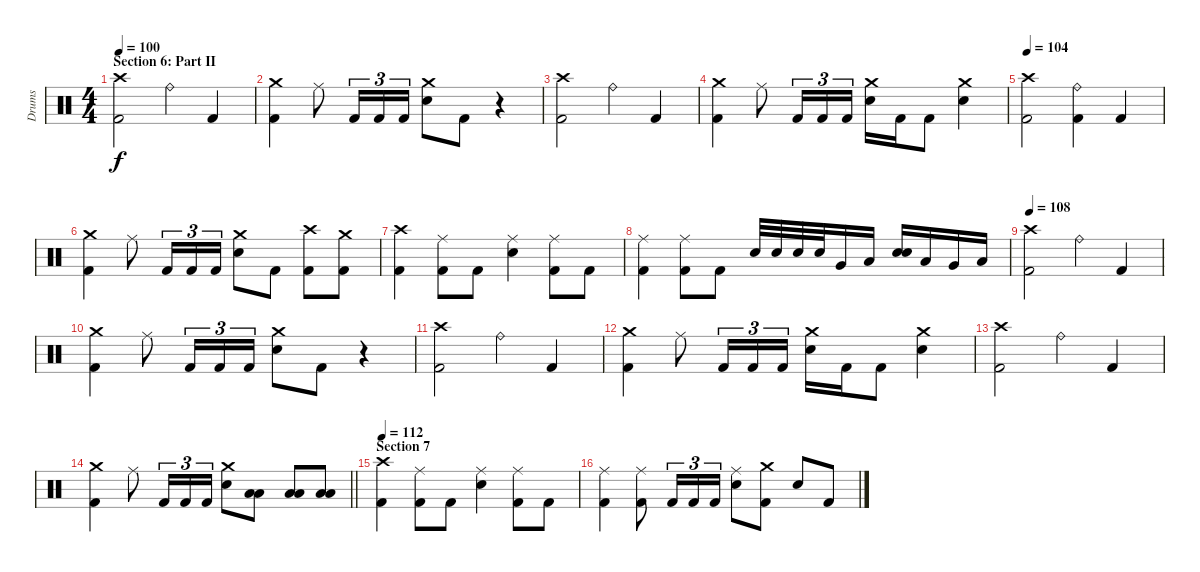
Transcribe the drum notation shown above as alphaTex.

\track ("Drums" "Drums") {instrument percussion}
\staff {score}
\articulation defaults
\ts (4 4)
\section ("" "Section 6: Part II")
\tempo 100
\clef neutral
\ks c
("Crash high (hit)" "Kick (hit) 2").2{dy f} "Ride (bell)".4 "Kick (hit) 2".4 |
("Crash medium (hit)" "Kick (hit) 2").4 "Ride (middle)".8 "Kick (hit) 2".16{tu (3 2)} "Kick (hit) 2".16{tu (3 2)} "Kick (hit) 2".16{tu (3 2)} ("Crash medium (hit)" "Electric Snare (hit)").8 "Kick (hit) 2".8 r.4 |
("Crash high (hit)" "Kick (hit) 2").2 "Ride (bell)".4 "Kick (hit) 2".4 |
("Crash medium (hit)" "Kick (hit) 2").4 "Ride (middle)".8 "Kick (hit) 2".16{tu (3 2)} "Kick (hit) 2".16{tu (3 2)} "Kick (hit) 2".16{tu (3 2)} ("Crash medium (hit)" "Electric Snare (hit)").16 "Kick (hit) 2".16 "Kick (hit) 2".8 ("Crash medium (hit)" "Electric Snare (hit)").4 |
\tempo 104
("Crash high (hit)" "Kick (hit) 2").2 ("Ride (bell)" "Kick (hit) 2").4 "Kick (hit) 2".4 |
("Crash medium (hit)" "Kick (hit) 2").4 "Ride (middle)".8 "Kick (hit) 2".16{tu (3 2)} "Kick (hit) 2".16{tu (3 2)} "Kick (hit) 2".16{tu (3 2)} ("Crash medium (hit)" "Electric Snare (hit)").8 "Kick (hit) 2".8 ("Crash high (hit)" "Kick (hit) 2").8 ("Crash medium (hit)" "Kick (hit) 2").8 |
("Crash high (hit)" "Kick (hit) 2").4 ("Ride (middle)" "Kick (hit) 2").8 "Kick (hit) 2".8 ("Ride (middle)" "Electric Snare (hit)").4 ("Ride (middle)" "Kick (hit) 2").8 "Kick (hit) 2".8 |
("Ride (middle)" "Kick (hit) 2").4 ("Ride (middle)" "Kick (hit) 2").8 "Kick (hit) 2".8 "Electric Snare (hit)".32 "Electric Snare (hit)".32 "Electric Snare (hit)".32 "Electric Snare (hit)".32 "Very Low Tom (hit)".16 "Low Floor Tom (hit)".16 ("Electric Snare (hit)" "Electric Snare (hit)").16{bu 60} "Low Tom (hit)".16 "Very Low Tom (hit)".16 "Low Floor Tom (hit)".16 |
\tempo 108
("Crash high (hit)" "Kick (hit) 2").2 "Ride (bell)".4 "Kick (hit) 2".4 |
("Crash medium (hit)" "Kick (hit) 2").4 "Ride (middle)".8 "Kick (hit) 2".16{tu (3 2)} "Kick (hit) 2".16{tu (3 2)} "Kick (hit) 2".16{tu (3 2)} ("Crash medium (hit)" "Electric Snare (hit)").8 "Kick (hit) 2".8 r.4 |
("Crash high (hit)" "Kick (hit) 2").2 "Ride (bell)".4 "Kick (hit) 2".4 |
("Crash medium (hit)" "Kick (hit) 2").4 "Ride (middle)".8 "Kick (hit) 2".16{tu (3 2)} "Kick (hit) 2".16{tu (3 2)} "Kick (hit) 2".16{tu (3 2)} ("Crash medium (hit)" "Electric Snare (hit)").16 "Kick (hit) 2".16 "Kick (hit) 2".8 ("Crash medium (hit)" "Electric Snare (hit)").4 |
("Crash high (hit)" "Kick (hit) 2").2 "Ride (bell)".4 "Kick (hit) 2".4 |
\barLineRight lightlight
("Crash medium (hit)" "Kick (hit) 2").4 "Ride (middle)".8 "Kick (hit) 2".16{tu (3 2)} "Kick (hit) 2".16{tu (3 2)} "Kick (hit) 2".16{tu (3 2)} ("Crash medium (hit)" "Electric Snare (hit)").8 ("Low Tom (hit)" "Low Floor Tom (hit)").8 ("Low Tom (hit)" "Low Floor Tom (hit)").8 ("Low Tom (hit)" "Low Floor Tom (hit)").8 |
\section ("" "Section 7")
\tempo 112
("Crash high (hit)" "Kick (hit) 2").4 ("Ride (middle)" "Kick (hit) 2").8 "Kick (hit) 2".8 ("Ride (middle)" "Electric Snare (hit)").4 ("Ride (middle)" "Kick (hit) 2").8 "Kick (hit) 2".8 |
("Ride (middle)" "Kick (hit) 2").4 ("Ride (middle)" "Kick (hit) 2").8 "Kick (hit) 2".16{tu (3 2)} "Kick (hit) 2".16{tu (3 2)} "Kick (hit) 2".16{tu (3 2)} ("Ride (middle)" "Electric Snare (hit)").8 ("Crash medium (hit)" "Kick (hit) 2").8 "Electric Snare (hit)".8 "Kick (hit) 2".8
